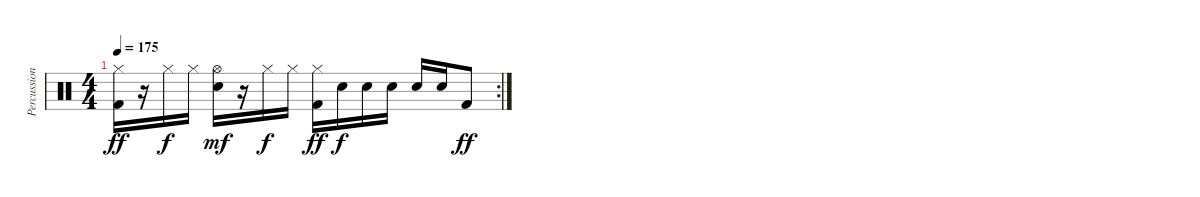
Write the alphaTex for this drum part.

\track ("Percussion" "Percussion") {instrument percussion}
\staff {score}
\articulation defaults
\rc 2
\ts (4 4)
\tempo 175
\clef neutral
\ks c
("Hi-Hat (closed)" "Kick (hit) 2").16{dy ff} r.16 "Hi-Hat (closed)".16{dy f} "Hi-Hat (closed)".16 ("Hi-Hat (open)" "Electric Snare (hit)").16{dy mf} r.16 "Hi-Hat (closed)".16{dy f} "Hi-Hat (closed)".16 ("Hi-Hat (closed)" "Kick (hit) 2").16{dy ff} "Electric Snare (hit)".16{dy f} "Electric Snare (hit)".16 "Electric Snare (hit)".16 "Electric Snare (hit)".16 "Electric Snare (hit)".16 "Kick (hit) 2".8{dy ff}
